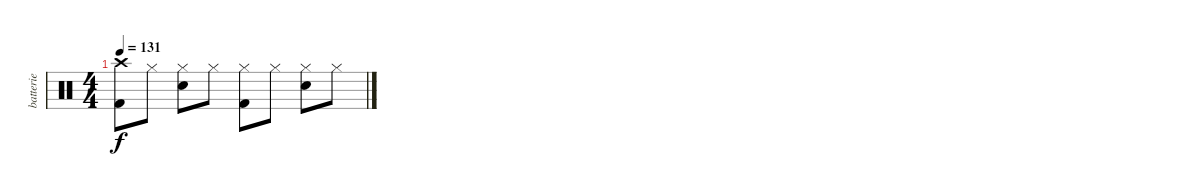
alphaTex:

\track ("batterie" "batterie") {instrument percussion}
\staff {score}
\articulation defaults
\ts (4 4)
\tempo 131
\clef neutral
\ks c
("Crash high (hit)" "Kick (hit) 2").8{dy f} "Hi-Hat (closed)".8 ("Hi-Hat (closed)" "Electric Snare (hit)").8 "Hi-Hat (closed)".8 ("Hi-Hat (closed)" "Kick (hit) 2").8 "Hi-Hat (closed)".8 ("Hi-Hat (closed)" "Electric Snare (hit)").8 "Hi-Hat (closed)".8
